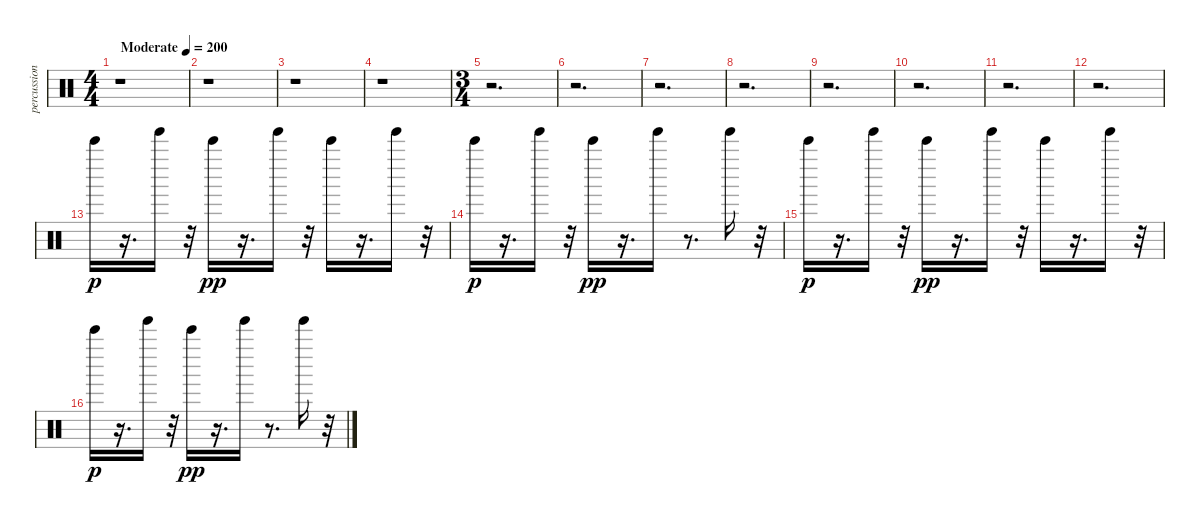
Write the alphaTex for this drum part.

\track ("percussion" "percussion") {instrument percussion}
\staff {score}
\articulation defaults
\ts (4 4)
\tempo (200 "Moderate")
\clef neutral
\ks c
r.1{dy p} |
r.1 |
r.1 |
r.1 |
\ts (3 4)
r.2{d} |
r.2{d} |
r.2{d} |
r.2{d} |
r.2{d} |
r.2{d} |
r.2{d} |
r.2{d} |
"Bell Tree (hit)".16{balance 8} r.16{d} "Tinkle Bell (hit)".16 r.32 "Bell Tree (hit)".16{dy pp} r.16{d} "Tinkle Bell (hit)".16 r.32 "Bell Tree (hit)".16 r.16{d} "Tinkle Bell (hit)".16 r.32 |
"Bell Tree (hit)".16{dy p} r.16{d} "Tinkle Bell (hit)".16 r.32 "Bell Tree (hit)".16{dy pp} r.16{d} "Tinkle Bell (hit)".16 r.8{d} "Tinkle Bell (hit)".16 r.32 |
"Bell Tree (hit)".16{dy p} r.16{d} "Tinkle Bell (hit)".16 r.32 "Bell Tree (hit)".16{dy pp} r.16{d} "Tinkle Bell (hit)".16 r.32 "Bell Tree (hit)".16 r.16{d} "Tinkle Bell (hit)".16 r.32 |
"Bell Tree (hit)".16{dy p} r.16{d} "Tinkle Bell (hit)".16 r.32 "Bell Tree (hit)".16{dy pp} r.16{d} "Tinkle Bell (hit)".16 r.8{d} "Tinkle Bell (hit)".16 r.32
